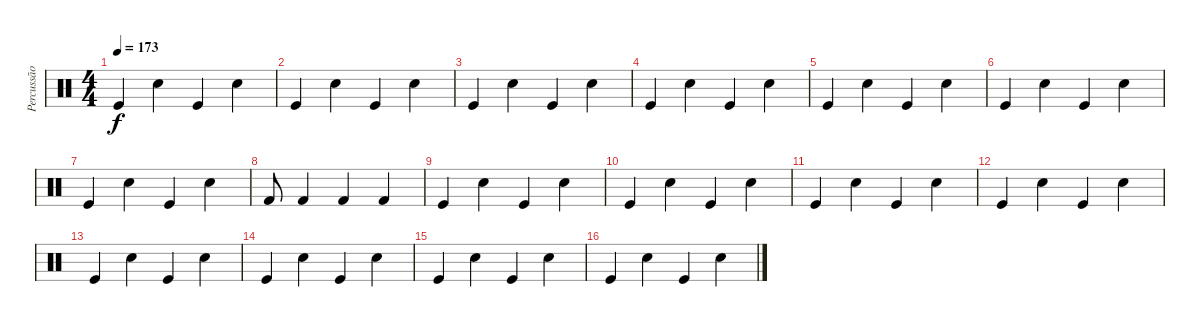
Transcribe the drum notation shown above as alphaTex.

\track ("Percussão" "Percussão") {instrument percussion}
\staff {score}
\articulation defaults
\ts (4 4)
\tempo 173
\clef neutral
\ks c "Kick (hit)".4{dy f} "Snare (hit) 2".4 "Kick (hit)".4 "Snare (hit) 2".4
|
"Kick (hit)".4 "Snare (hit) 2".4 "Kick (hit)".4 "Snare (hit) 2".4 |
"Kick (hit)".4 "Snare (hit) 2".4 "Kick (hit)".4 "Snare (hit) 2".4 |
"Kick (hit)".4 "Snare (hit) 2".4 "Kick (hit)".4 "Snare (hit) 2".4 |
"Kick (hit)".4 "Snare (hit) 2".4 "Kick (hit)".4 "Snare (hit) 2".4 |
"Kick (hit)".4 "Snare (hit) 2".4 "Kick (hit)".4 "Snare (hit) 2".4 |
"Kick (hit)".4 "Snare (hit) 2".4 "Kick (hit)".4 "Snare (hit) 2".4 |
"Kick (hit) 2".8 "Kick (hit) 2".4 "Kick (hit) 2".4 "Kick (hit) 2".4 |
"Kick (hit)".4 "Snare (hit) 2".4 "Kick (hit)".4 "Snare (hit) 2".4 |
"Kick (hit)".4 "Snare (hit) 2".4 "Kick (hit)".4 "Snare (hit) 2".4 |
"Kick (hit)".4 "Snare (hit) 2".4 "Kick (hit)".4 "Snare (hit) 2".4 |
"Kick (hit)".4 "Snare (hit) 2".4 "Kick (hit)".4 "Snare (hit) 2".4 |
"Kick (hit)".4 "Snare (hit) 2".4 "Kick (hit)".4 "Snare (hit) 2".4 |
"Kick (hit)".4 "Snare (hit) 2".4 "Kick (hit)".4 "Snare (hit) 2".4 |
"Kick (hit)".4 "Snare (hit) 2".4 "Kick (hit)".4 "Snare (hit) 2".4 |
"Kick (hit)".4 "Snare (hit) 2".4 "Kick (hit)".4 "Snare (hit) 2".4
